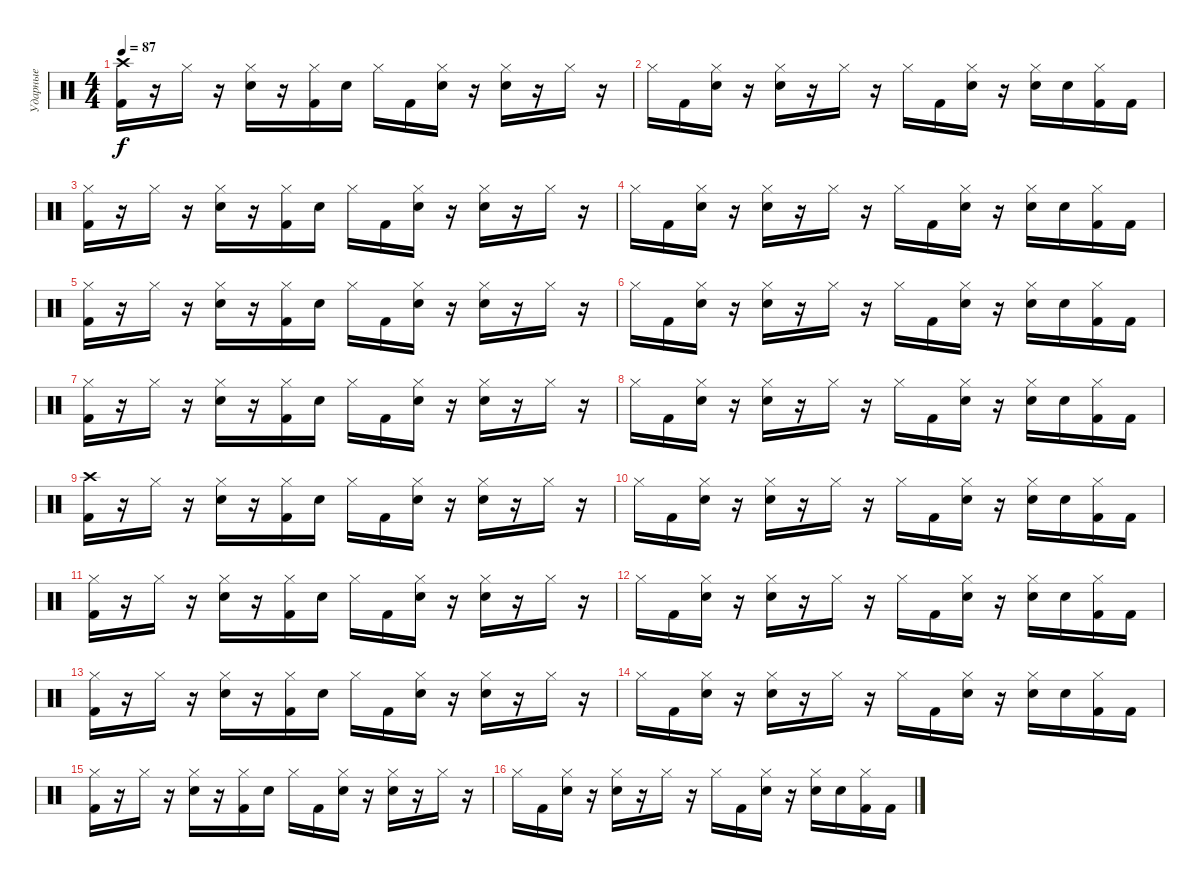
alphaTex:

\track ("Ударные" "Ударные") {instrument percussion}
\staff {score}
\articulation defaults
\ts (4 4)
\tempo 87
\clef neutral
\ks c
("Crash high (hit)" "Kick (hit) 2").16{dy f} r.16 "Hi-Hat (closed)".16 r.16 ("Hi-Hat (closed)" "Electric Snare (hit)").16 r.16 ("Hi-Hat (closed)" "Kick (hit) 2").16 "Electric Snare (hit)".16 "Hi-Hat (closed)".16 "Kick (hit) 2".16 ("Hi-Hat (closed)" "Electric Snare (hit)").16 r.16 ("Hi-Hat (closed)" "Electric Snare (hit)").16 r.16 "Hi-Hat (closed)".16 r.16 |
"Hi-Hat (closed)".16 "Kick (hit) 2".16 ("Hi-Hat (closed)" "Electric Snare (hit)").16 r.16 ("Hi-Hat (closed)" "Electric Snare (hit)").16 r.16 "Hi-Hat (closed)".16 r.16 "Hi-Hat (closed)".16 "Kick (hit) 2".16 ("Hi-Hat (closed)" "Electric Snare (hit)").16 r.16 ("Hi-Hat (closed)" "Electric Snare (hit)").16 "Electric Snare (hit)".16 ("Hi-Hat (closed)" "Kick (hit) 2").16 "Kick (hit) 2".16 |
("Hi-Hat (closed)" "Kick (hit) 2").16 r.16 "Hi-Hat (closed)".16 r.16 ("Hi-Hat (closed)" "Electric Snare (hit)").16 r.16 ("Hi-Hat (closed)" "Kick (hit) 2").16 "Electric Snare (hit)".16 "Hi-Hat (closed)".16 "Kick (hit) 2".16 ("Hi-Hat (closed)" "Electric Snare (hit)").16 r.16 ("Hi-Hat (closed)" "Electric Snare (hit)").16 r.16 "Hi-Hat (closed)".16 r.16 |
"Hi-Hat (closed)".16 "Kick (hit) 2".16 ("Hi-Hat (closed)" "Electric Snare (hit)").16 r.16 ("Hi-Hat (closed)" "Electric Snare (hit)").16 r.16 "Hi-Hat (closed)".16 r.16 "Hi-Hat (closed)".16 "Kick (hit) 2".16 ("Hi-Hat (closed)" "Electric Snare (hit)").16 r.16 ("Hi-Hat (closed)" "Electric Snare (hit)").16 "Electric Snare (hit)".16 ("Hi-Hat (closed)" "Kick (hit) 2").16 "Kick (hit) 2".16 |
("Hi-Hat (closed)" "Kick (hit) 2").16 r.16 "Hi-Hat (closed)".16 r.16 ("Hi-Hat (closed)" "Electric Snare (hit)").16 r.16 ("Hi-Hat (closed)" "Kick (hit) 2").16 "Electric Snare (hit)".16 "Hi-Hat (closed)".16 "Kick (hit) 2".16 ("Hi-Hat (closed)" "Electric Snare (hit)").16 r.16 ("Hi-Hat (closed)" "Electric Snare (hit)").16 r.16 "Hi-Hat (closed)".16 r.16 |
"Hi-Hat (closed)".16 "Kick (hit) 2".16 ("Hi-Hat (closed)" "Electric Snare (hit)").16 r.16 ("Hi-Hat (closed)" "Electric Snare (hit)").16 r.16 "Hi-Hat (closed)".16 r.16 "Hi-Hat (closed)".16 "Kick (hit) 2".16 ("Hi-Hat (closed)" "Electric Snare (hit)").16 r.16 ("Hi-Hat (closed)" "Electric Snare (hit)").16 "Electric Snare (hit)".16 ("Hi-Hat (closed)" "Kick (hit) 2").16 "Kick (hit) 2".16 |
("Hi-Hat (closed)" "Kick (hit) 2").16 r.16 "Hi-Hat (closed)".16 r.16 ("Hi-Hat (closed)" "Electric Snare (hit)").16 r.16 ("Hi-Hat (closed)" "Kick (hit) 2").16 "Electric Snare (hit)".16 "Hi-Hat (closed)".16 "Kick (hit) 2".16 ("Hi-Hat (closed)" "Electric Snare (hit)").16 r.16 ("Hi-Hat (closed)" "Electric Snare (hit)").16 r.16 "Hi-Hat (closed)".16 r.16 |
"Hi-Hat (closed)".16 "Kick (hit) 2".16 ("Hi-Hat (closed)" "Electric Snare (hit)").16 r.16 ("Hi-Hat (closed)" "Electric Snare (hit)").16 r.16 "Hi-Hat (closed)".16 r.16 "Hi-Hat (closed)".16 "Kick (hit) 2".16 ("Hi-Hat (closed)" "Electric Snare (hit)").16 r.16 ("Hi-Hat (closed)" "Electric Snare (hit)").16 "Electric Snare (hit)".16 ("Hi-Hat (closed)" "Kick (hit) 2").16 "Kick (hit) 2".16 |
("Crash high (hit)" "Kick (hit) 2").16 r.16 "Hi-Hat (closed)".16 r.16 ("Hi-Hat (closed)" "Electric Snare (hit)").16 r.16 ("Hi-Hat (closed)" "Kick (hit) 2").16 "Electric Snare (hit)".16 "Hi-Hat (closed)".16 "Kick (hit) 2".16 ("Hi-Hat (closed)" "Electric Snare (hit)").16 r.16 ("Hi-Hat (closed)" "Electric Snare (hit)").16 r.16 "Hi-Hat (closed)".16 r.16 |
"Hi-Hat (closed)".16 "Kick (hit) 2".16 ("Hi-Hat (closed)" "Electric Snare (hit)").16 r.16 ("Hi-Hat (closed)" "Electric Snare (hit)").16 r.16 "Hi-Hat (closed)".16 r.16 "Hi-Hat (closed)".16 "Kick (hit) 2".16 ("Hi-Hat (closed)" "Electric Snare (hit)").16 r.16 ("Hi-Hat (closed)" "Electric Snare (hit)").16 "Electric Snare (hit)".16 ("Hi-Hat (closed)" "Kick (hit) 2").16 "Kick (hit) 2".16 |
("Hi-Hat (closed)" "Kick (hit) 2").16 r.16 "Hi-Hat (closed)".16 r.16 ("Hi-Hat (closed)" "Electric Snare (hit)").16 r.16 ("Hi-Hat (closed)" "Kick (hit) 2").16 "Electric Snare (hit)".16 "Hi-Hat (closed)".16 "Kick (hit) 2".16 ("Hi-Hat (closed)" "Electric Snare (hit)").16 r.16 ("Hi-Hat (closed)" "Electric Snare (hit)").16 r.16 "Hi-Hat (closed)".16 r.16 |
"Hi-Hat (closed)".16 "Kick (hit) 2".16 ("Hi-Hat (closed)" "Electric Snare (hit)").16 r.16 ("Hi-Hat (closed)" "Electric Snare (hit)").16 r.16 "Hi-Hat (closed)".16 r.16 "Hi-Hat (closed)".16 "Kick (hit) 2".16 ("Hi-Hat (closed)" "Electric Snare (hit)").16 r.16 ("Hi-Hat (closed)" "Electric Snare (hit)").16 "Electric Snare (hit)".16 ("Hi-Hat (closed)" "Kick (hit) 2").16 "Kick (hit) 2".16 |
("Hi-Hat (closed)" "Kick (hit) 2").16 r.16 "Hi-Hat (closed)".16 r.16 ("Hi-Hat (closed)" "Electric Snare (hit)").16 r.16 ("Hi-Hat (closed)" "Kick (hit) 2").16 "Electric Snare (hit)".16 "Hi-Hat (closed)".16 "Kick (hit) 2".16 ("Hi-Hat (closed)" "Electric Snare (hit)").16 r.16 ("Hi-Hat (closed)" "Electric Snare (hit)").16 r.16 "Hi-Hat (closed)".16 r.16 |
"Hi-Hat (closed)".16 "Kick (hit) 2".16 ("Hi-Hat (closed)" "Electric Snare (hit)").16 r.16 ("Hi-Hat (closed)" "Electric Snare (hit)").16 r.16 "Hi-Hat (closed)".16 r.16 "Hi-Hat (closed)".16 "Kick (hit) 2".16 ("Hi-Hat (closed)" "Electric Snare (hit)").16 r.16 ("Hi-Hat (closed)" "Electric Snare (hit)").16 "Electric Snare (hit)".16 ("Hi-Hat (closed)" "Kick (hit) 2").16 "Kick (hit) 2".16 |
("Hi-Hat (closed)" "Kick (hit) 2").16 r.16 "Hi-Hat (closed)".16 r.16 ("Hi-Hat (closed)" "Electric Snare (hit)").16 r.16 ("Hi-Hat (closed)" "Kick (hit) 2").16 "Electric Snare (hit)".16 "Hi-Hat (closed)".16 "Kick (hit) 2".16 ("Hi-Hat (closed)" "Electric Snare (hit)").16 r.16 ("Hi-Hat (closed)" "Electric Snare (hit)").16 r.16 "Hi-Hat (closed)".16 r.16 |
"Hi-Hat (closed)".16 "Kick (hit) 2".16 ("Hi-Hat (closed)" "Electric Snare (hit)").16 r.16 ("Hi-Hat (closed)" "Electric Snare (hit)").16 r.16 "Hi-Hat (closed)".16 r.16 "Hi-Hat (closed)".16 "Kick (hit) 2".16 ("Hi-Hat (closed)" "Electric Snare (hit)").16 r.16 ("Hi-Hat (closed)" "Electric Snare (hit)").16 "Electric Snare (hit)".16 ("Hi-Hat (closed)" "Kick (hit) 2").16 "Kick (hit) 2".16
